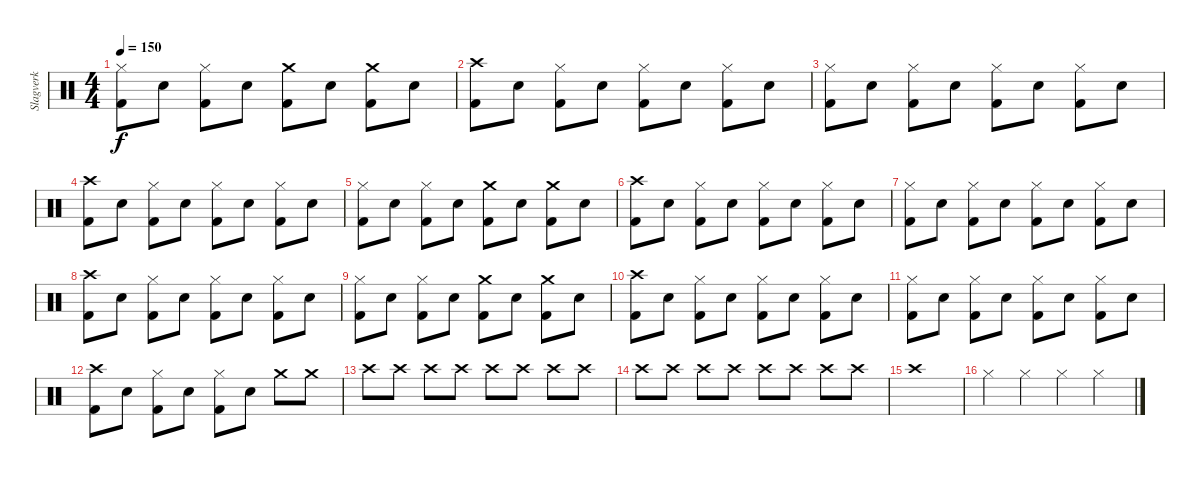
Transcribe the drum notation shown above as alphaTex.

\track ("Slagverk" "Slagverk") {instrument percussion}
\staff {score}
\articulation defaults
\ts (4 4)
\tempo 150
\clef neutral
\ks c
("Hi-Hat (closed)" "Kick (hit) 2").8{dy f} "Electric Snare (hit)".8 ("Hi-Hat (closed)" "Kick (hit) 2").8 "Electric Snare (hit)".8 ("Crash medium (hit)" "Kick (hit) 2").8 "Electric Snare (hit)".8 ("Crash medium (hit)" "Kick (hit) 2").8 "Electric Snare (hit)".8 |
("Crash high (hit)" "Kick (hit) 2").8 "Electric Snare (hit)".8 ("Hi-Hat (closed)" "Kick (hit) 2").8 "Electric Snare (hit)".8 ("Hi-Hat (closed)" "Kick (hit) 2").8 "Electric Snare (hit)".8 ("Hi-Hat (closed)" "Kick (hit) 2").8 "Electric Snare (hit)".8 |
("Hi-Hat (closed)" "Kick (hit) 2").8 "Electric Snare (hit)".8 ("Hi-Hat (closed)" "Kick (hit) 2").8 "Electric Snare (hit)".8 ("Hi-Hat (closed)" "Kick (hit) 2").8 "Electric Snare (hit)".8 ("Hi-Hat (closed)" "Kick (hit) 2").8 "Electric Snare (hit)".8 |
("Crash high (hit)" "Kick (hit) 2").8 "Electric Snare (hit)".8 ("Hi-Hat (closed)" "Kick (hit) 2").8 "Electric Snare (hit)".8 ("Hi-Hat (closed)" "Kick (hit) 2").8 "Electric Snare (hit)".8 ("Hi-Hat (closed)" "Kick (hit) 2").8 "Electric Snare (hit)".8 |
("Hi-Hat (closed)" "Kick (hit) 2").8 "Electric Snare (hit)".8 ("Hi-Hat (closed)" "Kick (hit) 2").8 "Electric Snare (hit)".8 ("Crash medium (hit)" "Kick (hit) 2").8 "Electric Snare (hit)".8 ("Crash medium (hit)" "Kick (hit) 2").8 "Electric Snare (hit)".8 |
("Crash high (hit)" "Kick (hit) 2").8 "Electric Snare (hit)".8 ("Hi-Hat (closed)" "Kick (hit) 2").8 "Electric Snare (hit)".8 ("Hi-Hat (closed)" "Kick (hit) 2").8 "Electric Snare (hit)".8 ("Hi-Hat (closed)" "Kick (hit) 2").8 "Electric Snare (hit)".8 |
("Hi-Hat (closed)" "Kick (hit) 2").8 "Electric Snare (hit)".8 ("Hi-Hat (closed)" "Kick (hit) 2").8 "Electric Snare (hit)".8 ("Hi-Hat (closed)" "Kick (hit) 2").8 "Electric Snare (hit)".8 ("Hi-Hat (closed)" "Kick (hit) 2").8 "Electric Snare (hit)".8 |
("Crash high (hit)" "Kick (hit) 2").8 "Electric Snare (hit)".8 ("Hi-Hat (closed)" "Kick (hit) 2").8 "Electric Snare (hit)".8 ("Hi-Hat (closed)" "Kick (hit) 2").8 "Electric Snare (hit)".8 ("Hi-Hat (closed)" "Kick (hit) 2").8 "Electric Snare (hit)".8 |
("Hi-Hat (closed)" "Kick (hit) 2").8 "Electric Snare (hit)".8 ("Hi-Hat (closed)" "Kick (hit) 2").8 "Electric Snare (hit)".8 ("Crash medium (hit)" "Kick (hit) 2").8 "Electric Snare (hit)".8 ("Crash medium (hit)" "Kick (hit) 2").8 "Electric Snare (hit)".8 |
("Crash high (hit)" "Kick (hit) 2").8 "Electric Snare (hit)".8 ("Hi-Hat (closed)" "Kick (hit) 2").8 "Electric Snare (hit)".8 ("Hi-Hat (closed)" "Kick (hit) 2").8 "Electric Snare (hit)".8 ("Hi-Hat (closed)" "Kick (hit) 2").8 "Electric Snare (hit)".8 |
("Hi-Hat (closed)" "Kick (hit) 2").8 "Electric Snare (hit)".8 ("Hi-Hat (closed)" "Kick (hit) 2").8 "Electric Snare (hit)".8 ("Hi-Hat (closed)" "Kick (hit) 2").8 "Electric Snare (hit)".8 ("Hi-Hat (closed)" "Kick (hit) 2").8 "Electric Snare (hit)".8 |
("Crash high (hit)" "Kick (hit) 2").8 "Electric Snare (hit)".8 ("Hi-Hat (closed)" "Kick (hit) 2").8 "Electric Snare (hit)".8 ("Hi-Hat (closed)" "Kick (hit) 2").8 "Electric Snare (hit)".8 "Crash medium (hit)".8 "Crash medium (hit)".8 |
"Crash high (hit)".8 "Crash high (hit)".8 "Crash high (hit)".8 "Crash high (hit)".8 "Crash high (hit)".8 "Crash high (hit)".8 "Crash high (hit)".8 "Crash high (hit)".8 |
"Crash high (hit)".8 "Crash high (hit)".8 "Crash high (hit)".8 "Crash high (hit)".8 "Crash high (hit)".8 "Crash high (hit)".8 "Crash high (hit)".8 "Crash high (hit)".8 |
"Crash high (hit)".1 |
"Hi-Hat (closed)".4 "Hi-Hat (closed)".4 "Hi-Hat (closed)".4 "Hi-Hat (closed)".4
